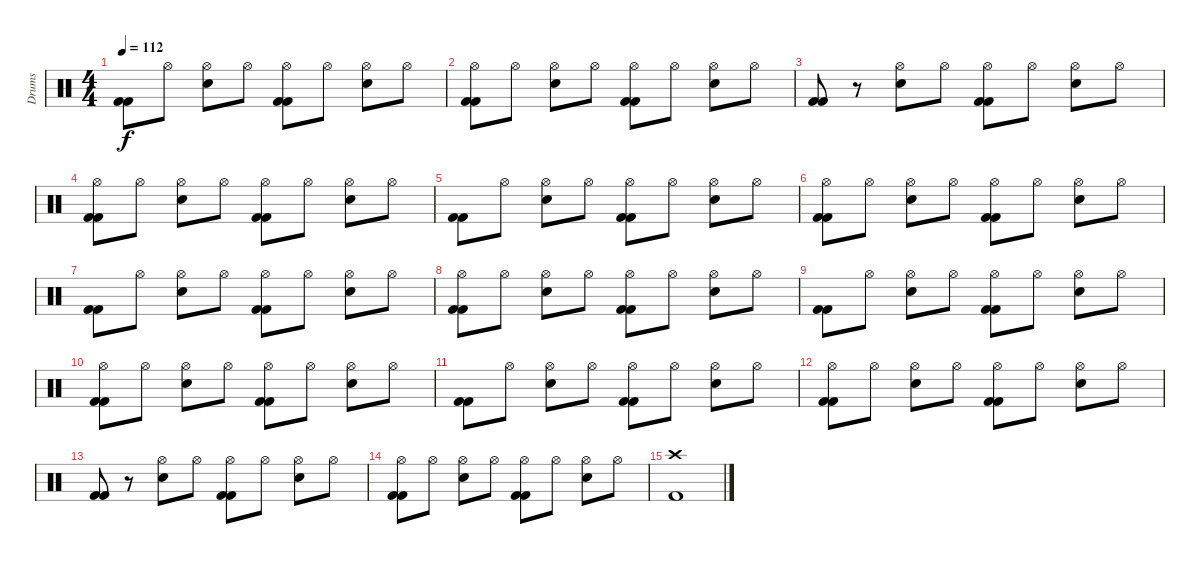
\track ("Drums" "Drums") {instrument percussion}
\staff {score}
\articulation defaults
\ts (4 4)
\tempo 112
\clef neutral
\ks c
("Kick (hit) 2" "Kick (hit) 2").8{dy f} "Hi-Hat (open)".8 ("Hi-Hat (open)" "Electric Snare (hit)").8 "Hi-Hat (open)".8 ("Hi-Hat (open)" "Kick (hit) 2" "Kick (hit) 2").8 "Hi-Hat (open)".8 ("Hi-Hat (open)" "Electric Snare (hit)").8 "Hi-Hat (open)".8 |
("Hi-Hat (open)" "Kick (hit) 2" "Kick (hit) 2").8 "Hi-Hat (open)".8 ("Hi-Hat (open)" "Electric Snare (hit)").8 "Hi-Hat (open)".8 ("Hi-Hat (open)" "Kick (hit) 2" "Kick (hit) 2").8 "Hi-Hat (open)".8 ("Hi-Hat (open)" "Electric Snare (hit)").8 "Hi-Hat (open)".8 |
("Kick (hit) 2" "Kick (hit) 2").8 r.8 ("Hi-Hat (open)" "Electric Snare (hit)").8 "Hi-Hat (open)".8 ("Hi-Hat (open)" "Kick (hit) 2" "Kick (hit) 2").8 "Hi-Hat (open)".8 ("Hi-Hat (open)" "Electric Snare (hit)").8 "Hi-Hat (open)".8 |
("Hi-Hat (open)" "Kick (hit) 2" "Kick (hit) 2").8 "Hi-Hat (open)".8 ("Hi-Hat (open)" "Electric Snare (hit)").8 "Hi-Hat (open)".8 ("Hi-Hat (open)" "Kick (hit) 2" "Kick (hit) 2").8 "Hi-Hat (open)".8 ("Hi-Hat (open)" "Electric Snare (hit)").8 "Hi-Hat (open)".8 |
("Kick (hit) 2" "Kick (hit) 2").8 "Hi-Hat (open)".8 ("Hi-Hat (open)" "Electric Snare (hit)").8 "Hi-Hat (open)".8 ("Hi-Hat (open)" "Kick (hit) 2" "Kick (hit) 2").8 "Hi-Hat (open)".8 ("Hi-Hat (open)" "Electric Snare (hit)").8 "Hi-Hat (open)".8 |
("Hi-Hat (open)" "Kick (hit) 2" "Kick (hit) 2").8 "Hi-Hat (open)".8 ("Hi-Hat (open)" "Electric Snare (hit)").8 "Hi-Hat (open)".8 ("Hi-Hat (open)" "Kick (hit) 2" "Kick (hit) 2").8 "Hi-Hat (open)".8 ("Hi-Hat (open)" "Electric Snare (hit)").8 "Hi-Hat (open)".8 |
("Kick (hit) 2" "Kick (hit) 2").8 "Hi-Hat (open)".8 ("Hi-Hat (open)" "Electric Snare (hit)").8 "Hi-Hat (open)".8 ("Hi-Hat (open)" "Kick (hit) 2" "Kick (hit) 2").8 "Hi-Hat (open)".8 ("Hi-Hat (open)" "Electric Snare (hit)").8 "Hi-Hat (open)".8 |
("Hi-Hat (open)" "Kick (hit) 2" "Kick (hit) 2").8 "Hi-Hat (open)".8 ("Hi-Hat (open)" "Electric Snare (hit)").8 "Hi-Hat (open)".8 ("Hi-Hat (open)" "Kick (hit) 2" "Kick (hit) 2").8 "Hi-Hat (open)".8 ("Hi-Hat (open)" "Electric Snare (hit)").8 "Hi-Hat (open)".8 |
("Kick (hit) 2" "Kick (hit) 2").8 "Hi-Hat (open)".8 ("Hi-Hat (open)" "Electric Snare (hit)").8 "Hi-Hat (open)".8 ("Hi-Hat (open)" "Kick (hit) 2" "Kick (hit) 2").8 "Hi-Hat (open)".8 ("Hi-Hat (open)" "Electric Snare (hit)").8 "Hi-Hat (open)".8 |
("Hi-Hat (open)" "Kick (hit) 2" "Kick (hit) 2").8 "Hi-Hat (open)".8 ("Hi-Hat (open)" "Electric Snare (hit)").8 "Hi-Hat (open)".8 ("Hi-Hat (open)" "Kick (hit) 2" "Kick (hit) 2").8 "Hi-Hat (open)".8 ("Hi-Hat (open)" "Electric Snare (hit)").8 "Hi-Hat (open)".8 |
("Kick (hit) 2" "Kick (hit) 2").8 "Hi-Hat (open)".8 ("Hi-Hat (open)" "Electric Snare (hit)").8 "Hi-Hat (open)".8 ("Hi-Hat (open)" "Kick (hit) 2" "Kick (hit) 2").8 "Hi-Hat (open)".8 ("Hi-Hat (open)" "Electric Snare (hit)").8 "Hi-Hat (open)".8 |
("Hi-Hat (open)" "Kick (hit) 2" "Kick (hit) 2").8 "Hi-Hat (open)".8 ("Hi-Hat (open)" "Electric Snare (hit)").8 "Hi-Hat (open)".8 ("Hi-Hat (open)" "Kick (hit) 2" "Kick (hit) 2").8 "Hi-Hat (open)".8 ("Hi-Hat (open)" "Electric Snare (hit)").8 "Hi-Hat (open)".8 |
("Kick (hit) 2" "Kick (hit) 2").8 r.8 ("Hi-Hat (open)" "Electric Snare (hit)").8 "Hi-Hat (open)".8 ("Hi-Hat (open)" "Kick (hit) 2" "Kick (hit) 2").8 "Hi-Hat (open)".8 ("Hi-Hat (open)" "Electric Snare (hit)").8 "Hi-Hat (open)".8 |
("Hi-Hat (open)" "Kick (hit) 2" "Kick (hit) 2").8 "Hi-Hat (open)".8 ("Hi-Hat (open)" "Electric Snare (hit)").8 "Hi-Hat (open)".8 ("Hi-Hat (open)" "Kick (hit) 2" "Kick (hit) 2").8 "Hi-Hat (open)".8 ("Hi-Hat (open)" "Electric Snare (hit)").8 "Hi-Hat (open)".8 |
("Crash high (hit)" "Kick (hit) 2").1
